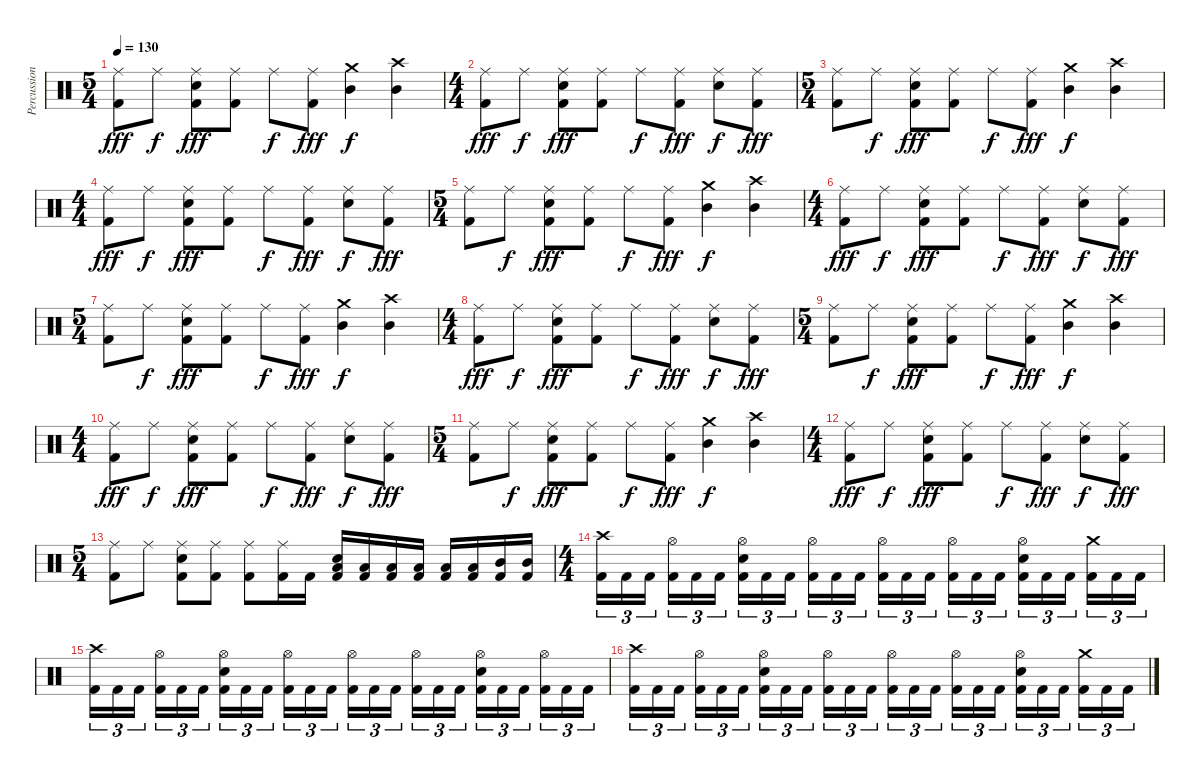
\track ("Percussion" "Percussion") {instrument percussion}
\staff {score}
\articulation defaults
\ts (5 4)
\tempo 130
\clef neutral
\ks c
("Ride (middle)" "Kick (hit) 2").8{dy fff} "Ride (middle)".8{dy f} ("Ride (middle)" "Snare (hit) 2" "Kick (hit) 2").8{dy fff} ("Ride (middle)" "Kick (hit) 2").8 "Ride (middle)".8{dy f} ("Ride (middle)" "Kick (hit) 2").8{dy fff} ("Crash medium (hit)" "Mid Tom (hit)").4{dy f} ("Crash high (hit)" "Mid Tom (hit)").4 |
\ts (4 4)
("Ride (middle)" "Kick (hit) 2").8{dy fff} "Ride (middle)".8{dy f} ("Ride (middle)" "Snare (hit) 2" "Kick (hit) 2").8{dy fff} ("Ride (middle)" "Kick (hit) 2").8 "Ride (middle)".8{dy f} ("Ride (middle)" "Kick (hit) 2").8{dy fff} ("Ride (middle)" "Snare (hit) 2").8{dy f} ("Ride (middle)" "Kick (hit) 2").8{dy fff} |
\ts (5 4)
("Ride (middle)" "Kick (hit) 2").8 "Ride (middle)".8{dy f} ("Ride (middle)" "Snare (hit) 2" "Kick (hit) 2").8{dy fff} ("Ride (middle)" "Kick (hit) 2").8 "Ride (middle)".8{dy f} ("Ride (middle)" "Kick (hit) 2").8{dy fff} ("Crash medium (hit)" "Mid Tom (hit)").4{dy f} ("Crash high (hit)" "Mid Tom (hit)").4 |
\ts (4 4)
("Ride (middle)" "Kick (hit) 2").8{dy fff} "Ride (middle)".8{dy f} ("Ride (middle)" "Snare (hit) 2" "Kick (hit) 2").8{dy fff} ("Ride (middle)" "Kick (hit) 2").8 "Ride (middle)".8{dy f} ("Ride (middle)" "Kick (hit) 2").8{dy fff} ("Ride (middle)" "Snare (hit) 2").8{dy f} ("Ride (middle)" "Kick (hit) 2").8{dy fff} |
\ts (5 4)
("Ride (middle)" "Kick (hit) 2").8 "Ride (middle)".8{dy f} ("Ride (middle)" "Snare (hit) 2" "Kick (hit) 2").8{dy fff} ("Ride (middle)" "Kick (hit) 2").8 "Ride (middle)".8{dy f} ("Ride (middle)" "Kick (hit) 2").8{dy fff} ("Crash medium (hit)" "Mid Tom (hit)").4{dy f} ("Crash high (hit)" "Mid Tom (hit)").4 |
\ts (4 4)
("Ride (middle)" "Kick (hit) 2").8{dy fff} "Ride (middle)".8{dy f} ("Ride (middle)" "Snare (hit) 2" "Kick (hit) 2").8{dy fff} ("Ride (middle)" "Kick (hit) 2").8 "Ride (middle)".8{dy f} ("Ride (middle)" "Kick (hit) 2").8{dy fff} ("Ride (middle)" "Snare (hit) 2").8{dy f} ("Ride (middle)" "Kick (hit) 2").8{dy fff} |
\ts (5 4)
("Ride (middle)" "Kick (hit) 2").8 "Ride (middle)".8{dy f} ("Ride (middle)" "Snare (hit) 2" "Kick (hit) 2").8{dy fff} ("Ride (middle)" "Kick (hit) 2").8 "Ride (middle)".8{dy f} ("Ride (middle)" "Kick (hit) 2").8{dy fff} ("Crash medium (hit)" "Mid Tom (hit)").4{dy f} ("Crash high (hit)" "Mid Tom (hit)").4 |
\ts (4 4)
("Ride (middle)" "Kick (hit) 2").8{dy fff} "Ride (middle)".8{dy f} ("Ride (middle)" "Snare (hit) 2" "Kick (hit) 2").8{dy fff} ("Ride (middle)" "Kick (hit) 2").8 "Ride (middle)".8{dy f} ("Ride (middle)" "Kick (hit) 2").8{dy fff} ("Ride (middle)" "Snare (hit) 2").8{dy f} ("Ride (middle)" "Kick (hit) 2").8{dy fff} |
\ts (5 4)
("Ride (middle)" "Kick (hit) 2").8 "Ride (middle)".8{dy f} ("Ride (middle)" "Snare (hit) 2" "Kick (hit) 2").8{dy fff} ("Ride (middle)" "Kick (hit) 2").8 "Ride (middle)".8{dy f} ("Ride (middle)" "Kick (hit) 2").8{dy fff} ("Crash medium (hit)" "Mid Tom (hit)").4{dy f} ("Crash high (hit)" "Mid Tom (hit)").4 |
\ts (4 4)
("Ride (middle)" "Kick (hit) 2").8{dy fff} "Ride (middle)".8{dy f} ("Ride (middle)" "Snare (hit) 2" "Kick (hit) 2").8{dy fff} ("Ride (middle)" "Kick (hit) 2").8 "Ride (middle)".8{dy f} ("Ride (middle)" "Kick (hit) 2").8{dy fff} ("Ride (middle)" "Snare (hit) 2").8{dy f} ("Ride (middle)" "Kick (hit) 2").8{dy fff} |
\ts (5 4)
("Ride (middle)" "Kick (hit) 2").8 "Ride (middle)".8{dy f} ("Ride (middle)" "Snare (hit) 2" "Kick (hit) 2").8{dy fff} ("Ride (middle)" "Kick (hit) 2").8 "Ride (middle)".8{dy f} ("Ride (middle)" "Kick (hit) 2").8{dy fff} ("Crash medium (hit)" "Mid Tom (hit)").4{dy f} ("Crash high (hit)" "Mid Tom (hit)").4 |
\ts (4 4)
("Ride (middle)" "Kick (hit) 2").8{dy fff} "Ride (middle)".8{dy f} ("Ride (middle)" "Snare (hit) 2" "Kick (hit) 2").8{dy fff} ("Ride (middle)" "Kick (hit) 2").8 "Ride (middle)".8{dy f} ("Ride (middle)" "Kick (hit) 2").8{dy fff} ("Ride (middle)" "Snare (hit) 2").8{dy f} ("Ride (middle)" "Kick (hit) 2").8{dy fff} |
\ts (5 4)
("Ride (middle)" "Kick (hit) 2").8 "Ride (middle)".8 ("Ride (middle)" "Snare (hit) 2" "Kick (hit) 2").8 ("Ride (middle)" "Kick (hit) 2").8 ("Ride (middle)" "Kick (hit) 2").8 ("Ride (middle)" "Kick (hit) 2").16 "Kick (hit) 2".16 ("Snare (hit) 2" "Low Floor Tom (hit)" "Kick (hit) 2").16 ("Low Floor Tom (hit)" "Kick (hit) 2").16 ("Low Floor Tom (hit)" "Kick (hit) 2").16 ("Low Tom (hit)" "Kick (hit) 2").16 ("Low Tom (hit)" "Kick (hit) 2").16 ("Low Tom (hit)" "Kick (hit) 2").16 ("Mid Tom (hit)" "Kick (hit) 2").16 ("Mid Tom (hit)" "Kick (hit) 2").16 |
\ts (4 4)
("Crash high (hit)" "Kick (hit) 2").16{tu (3 2)} "Kick (hit) 2".16{tu (3 2)} "Kick (hit) 2".16{tu (3 2) beam splitsecondary} ("Hi-Hat (open)" "Kick (hit) 2").16{tu (3 2)} "Kick (hit) 2".16{tu (3 2)} "Kick (hit) 2".16{tu (3 2)} ("Hi-Hat (open)" "Snare (hit) 2" "Kick (hit) 2").16{tu (3 2)} "Kick (hit) 2".16{tu (3 2)} "Kick (hit) 2".16{tu (3 2) beam splitsecondary} ("Hi-Hat (open)" "Kick (hit) 2").16{tu (3 2)} "Kick (hit) 2".16{tu (3 2)} "Kick (hit) 2".16{tu (3 2)} ("Hi-Hat (open)" "Kick (hit) 2").16{tu (3 2)} "Kick (hit) 2".16{tu (3 2)} "Kick (hit) 2".16{tu (3 2) beam splitsecondary} ("Hi-Hat (open)" "Kick (hit) 2").16{tu (3 2)} "Kick (hit) 2".16{tu (3 2)} "Kick (hit) 2".16{tu (3 2)} ("Hi-Hat (open)" "Snare (hit) 2" "Kick (hit) 2").16{tu (3 2)} "Kick (hit) 2".16{tu (3 2)} "Kick (hit) 2".16{tu (3 2) beam splitsecondary} ("Crash medium (hit)" "Kick (hit) 2").16{tu (3 2)} "Kick (hit) 2".16{tu (3 2)} "Kick (hit) 2".16{tu (3 2)} |
("Crash high (hit)" "Kick (hit) 2").16{tu (3 2)} "Kick (hit) 2".16{tu (3 2)} "Kick (hit) 2".16{tu (3 2) beam splitsecondary} ("Hi-Hat (open)" "Kick (hit) 2").16{tu (3 2)} "Kick (hit) 2".16{tu (3 2)} "Kick (hit) 2".16{tu (3 2)} ("Hi-Hat (open)" "Snare (hit) 2" "Kick (hit) 2").16{tu (3 2)} "Kick (hit) 2".16{tu (3 2)} "Kick (hit) 2".16{tu (3 2) beam splitsecondary} ("Hi-Hat (open)" "Kick (hit) 2").16{tu (3 2)} "Kick (hit) 2".16{tu (3 2)} "Kick (hit) 2".16{tu (3 2)} ("Hi-Hat (open)" "Kick (hit) 2").16{tu (3 2)} "Kick (hit) 2".16{tu (3 2)} "Kick (hit) 2".16{tu (3 2) beam splitsecondary} ("Hi-Hat (open)" "Kick (hit) 2").16{tu (3 2)} "Kick (hit) 2".16{tu (3 2)} "Kick (hit) 2".16{tu (3 2)} ("Hi-Hat (open)" "Snare (hit) 2" "Kick (hit) 2").16{tu (3 2)} "Kick (hit) 2".16{tu (3 2)} "Kick (hit) 2".16{tu (3 2) beam splitsecondary} ("Hi-Hat (open)" "Kick (hit) 2").16{tu (3 2)} "Kick (hit) 2".16{tu (3 2)} "Kick (hit) 2".16{tu (3 2)} |
("Crash high (hit)" "Kick (hit) 2").16{tu (3 2)} "Kick (hit) 2".16{tu (3 2)} "Kick (hit) 2".16{tu (3 2) beam splitsecondary} ("Hi-Hat (open)" "Kick (hit) 2").16{tu (3 2)} "Kick (hit) 2".16{tu (3 2)} "Kick (hit) 2".16{tu (3 2)} ("Hi-Hat (open)" "Snare (hit) 2" "Kick (hit) 2").16{tu (3 2)} "Kick (hit) 2".16{tu (3 2)} "Kick (hit) 2".16{tu (3 2) beam splitsecondary} ("Hi-Hat (open)" "Kick (hit) 2").16{tu (3 2)} "Kick (hit) 2".16{tu (3 2)} "Kick (hit) 2".16{tu (3 2)} ("Hi-Hat (open)" "Kick (hit) 2").16{tu (3 2)} "Kick (hit) 2".16{tu (3 2)} "Kick (hit) 2".16{tu (3 2) beam splitsecondary} ("Hi-Hat (open)" "Kick (hit) 2").16{tu (3 2)} "Kick (hit) 2".16{tu (3 2)} "Kick (hit) 2".16{tu (3 2)} ("Hi-Hat (open)" "Snare (hit) 2" "Kick (hit) 2").16{tu (3 2)} "Kick (hit) 2".16{tu (3 2)} "Kick (hit) 2".16{tu (3 2) beam splitsecondary} ("Crash medium (hit)" "Kick (hit) 2").16{tu (3 2)} "Kick (hit) 2".16{tu (3 2)} "Kick (hit) 2".16{tu (3 2)}
